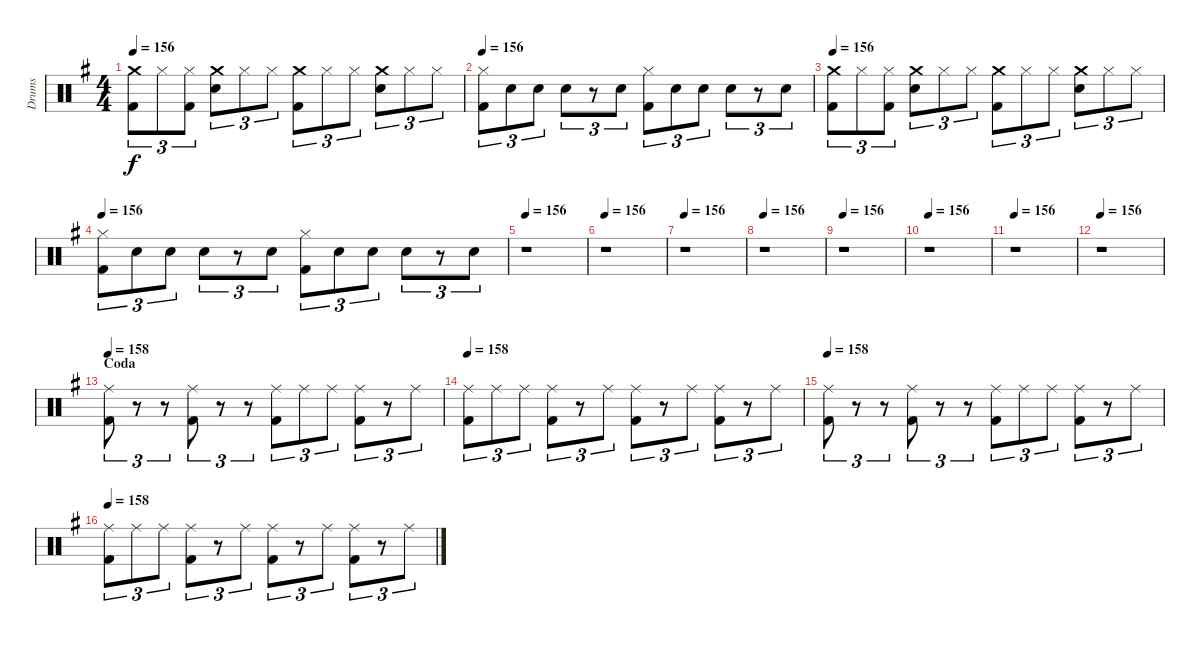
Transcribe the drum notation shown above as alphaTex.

\track ("Drums" "Drums") {instrument percussion}
\staff {score}
\articulation defaults
\ts (4 4)
\tempo 156
\clef neutral
\ks eminor
("Crash medium (hit)" "Kick (hit) 2").8{tu (3 2) dy f} "Hi-Hat (closed)".8{tu (3 2)} ("Hi-Hat (closed)" "Kick (hit) 2").8{tu (3 2)} ("Crash medium (hit)" "Snare (hit) 2").8{tu (3 2)} "Hi-Hat (closed)".8{tu (3 2)} "Hi-Hat (closed)".8{tu (3 2)} ("Crash medium (hit)" "Kick (hit) 2").8{tu (3 2)} "Hi-Hat (closed)".8{tu (3 2)} "Hi-Hat (closed)".8{tu (3 2)} ("Crash medium (hit)" "Snare (hit) 2").8{tu (3 2)} "Hi-Hat (closed)".8{tu (3 2)} "Hi-Hat (closed)".8{tu (3 2)} |
\tempo 156
("Hi-Hat (closed)" "Kick (hit) 2").8{tu (3 2)} "Snare (hit) 2".8{tu (3 2)} "Snare (hit) 2".8{tu (3 2)} "Snare (hit) 2".8{tu (3 2)} r.8{tu (3 2)} "Snare (hit) 2".8{tu (3 2)} ("Hi-Hat (closed)" "Kick (hit) 2").8{tu (3 2)} "Snare (hit) 2".8{tu (3 2)} "Snare (hit) 2".8{tu (3 2)} "Snare (hit) 2".8{tu (3 2)} r.8{tu (3 2)} "Snare (hit) 2".8{tu (3 2)} |
\tempo 156
("Crash medium (hit)" "Kick (hit) 2").8{tu (3 2)} "Hi-Hat (closed)".8{tu (3 2)} ("Hi-Hat (closed)" "Kick (hit) 2").8{tu (3 2)} ("Crash medium (hit)" "Snare (hit) 2").8{tu (3 2)} "Hi-Hat (closed)".8{tu (3 2)} "Hi-Hat (closed)".8{tu (3 2)} ("Crash medium (hit)" "Kick (hit) 2").8{tu (3 2)} "Hi-Hat (closed)".8{tu (3 2)} "Hi-Hat (closed)".8{tu (3 2)} ("Crash medium (hit)" "Snare (hit) 2").8{tu (3 2)} "Hi-Hat (closed)".8{tu (3 2)} "Hi-Hat (closed)".8{tu (3 2)} |
\tempo 156
("Hi-Hat (closed)" "Kick (hit) 2").8{tu (3 2)} "Snare (hit) 2".8{tu (3 2)} "Snare (hit) 2".8{tu (3 2)} "Snare (hit) 2".8{tu (3 2)} r.8{tu (3 2)} "Snare (hit) 2".8{tu (3 2)} ("Hi-Hat (closed)" "Kick (hit) 2").8{tu (3 2)} "Snare (hit) 2".8{tu (3 2)} "Snare (hit) 2".8{tu (3 2)} "Snare (hit) 2".8{tu (3 2)} r.8{tu (3 2)} "Snare (hit) 2".8{tu (3 2)} |
\tempo 156
r.1 |
\tempo 156
r.1 |
\tempo 156
r.1 |
\tempo 156
r.1 |
\tempo 156
r.1 |
\tempo 156
r.1 |
\tempo 156
r.1 |
\tempo 156
r.1 |
\section ("" "Coda")
\tempo 158
("Ride (middle)" "Kick (hit) 2").8{tu (3 2)} r.8{tu (3 2)} r.8{tu (3 2)} ("Ride (middle)" "Kick (hit) 2").8{tu (3 2)} r.8{tu (3 2)} r.8{tu (3 2)} ("Ride (middle)" "Kick (hit) 2").8{tu (3 2)} "Ride (middle)".8{tu (3 2)} "Ride (middle)".8{tu (3 2)} ("Ride (middle)" "Kick (hit) 2").8{tu (3 2)} r.8{tu (3 2)} "Ride (middle)".8{tu (3 2)} |
\tempo 158
("Ride (middle)" "Kick (hit) 2").8{tu (3 2)} "Ride (middle)".8{tu (3 2)} "Ride (middle)".8{tu (3 2)} ("Ride (middle)" "Kick (hit) 2").8{tu (3 2)} r.8{tu (3 2)} "Ride (middle)".8{tu (3 2)} ("Ride (middle)" "Kick (hit) 2").8{tu (3 2)} r.8{tu (3 2)} "Ride (middle)".8{tu (3 2)} ("Ride (middle)" "Kick (hit) 2").8{tu (3 2)} r.8{tu (3 2)} "Ride (middle)".8{tu (3 2)} |
\tempo 158
("Ride (middle)" "Kick (hit) 2").8{tu (3 2)} r.8{tu (3 2)} r.8{tu (3 2)} ("Ride (middle)" "Kick (hit) 2").8{tu (3 2)} r.8{tu (3 2)} r.8{tu (3 2)} ("Ride (middle)" "Kick (hit) 2").8{tu (3 2)} "Ride (middle)".8{tu (3 2)} "Ride (middle)".8{tu (3 2)} ("Ride (middle)" "Kick (hit) 2").8{tu (3 2)} r.8{tu (3 2)} "Ride (middle)".8{tu (3 2)} |
\tempo 158
("Ride (middle)" "Kick (hit) 2").8{tu (3 2)} "Ride (middle)".8{tu (3 2)} "Ride (middle)".8{tu (3 2)} ("Ride (middle)" "Kick (hit) 2").8{tu (3 2)} r.8{tu (3 2)} "Ride (middle)".8{tu (3 2)} ("Ride (middle)" "Kick (hit) 2").8{tu (3 2)} r.8{tu (3 2)} "Ride (middle)".8{tu (3 2)} ("Ride (middle)" "Kick (hit) 2").8{tu (3 2)} r.8{tu (3 2)} "Ride (middle)".8{tu (3 2)}
